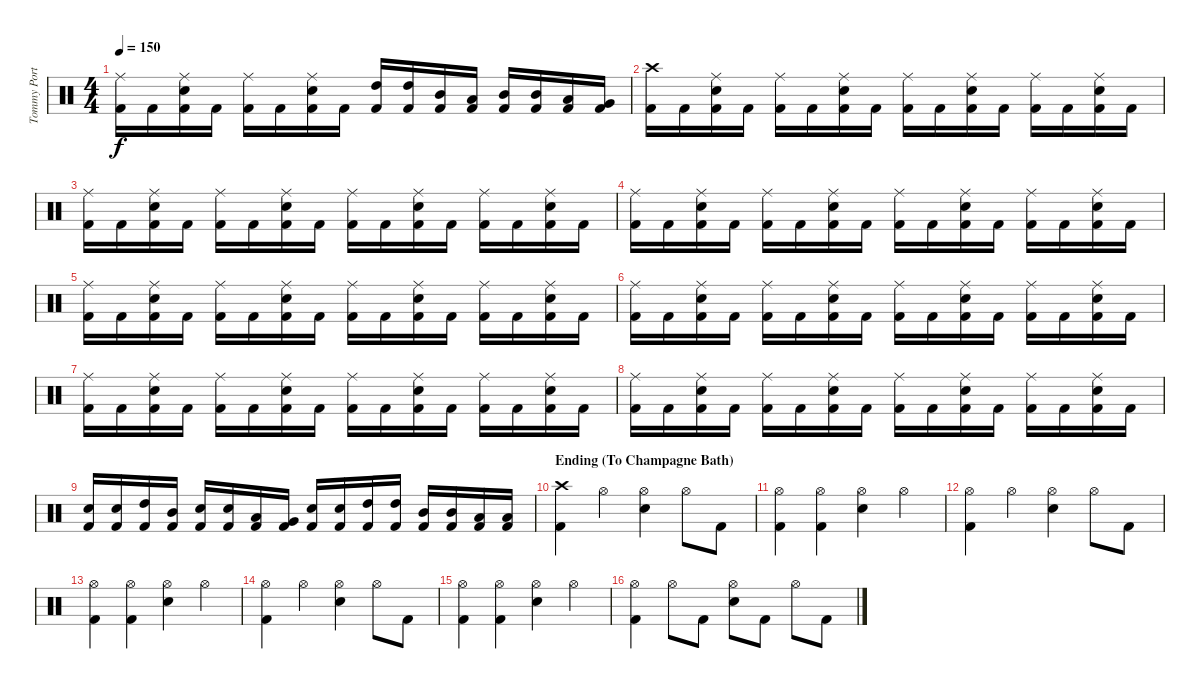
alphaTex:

\track ("Tommy Portino - Drums" "Tommy Port") {instrument percussion}
\staff {score}
\articulation defaults
\ts (4 4)
\tempo 150
\clef neutral
\ks c
("Ride (middle)" "Kick (hit) 2").16{dy f} "Kick (hit) 2".16 ("Ride (middle)" "Electric Snare (hit)" "Kick (hit) 2").16 "Kick (hit) 2".16 ("Ride (middle)" "Kick (hit) 2").16 "Kick (hit) 2".16 ("Ride (middle)" "Electric Snare (hit)" "Kick (hit) 2").16 "Kick (hit) 2".16 ("High Tom (hit)" "Kick (hit) 2").16 ("High Tom (hit)" "Kick (hit) 2").16 ("Mid Tom (hit)" "Kick (hit) 2").16 ("Low Tom (hit)" "Kick (hit) 2").16 ("Mid Tom (hit)" "Kick (hit) 2").16 ("Mid Tom (hit)" "Kick (hit) 2").16 ("Low Tom (hit)" "Kick (hit) 2").16 ("Very Low Tom (hit)" "Kick (hit) 2").16 |
("Crash high (hit)" "Kick (hit) 2").16 "Kick (hit) 2".16 ("Ride (middle)" "Electric Snare (hit)" "Kick (hit) 2").16 "Kick (hit) 2".16 ("Ride (middle)" "Kick (hit) 2").16 "Kick (hit) 2".16 ("Ride (middle)" "Electric Snare (hit)" "Kick (hit) 2").16 "Kick (hit) 2".16 ("Ride (middle)" "Kick (hit) 2").16 "Kick (hit) 2".16 ("Ride (middle)" "Electric Snare (hit)" "Kick (hit) 2").16 "Kick (hit) 2".16 ("Ride (middle)" "Kick (hit) 2").16 "Kick (hit) 2".16 ("Ride (middle)" "Electric Snare (hit)" "Kick (hit) 2").16 "Kick (hit) 2".16 |
("Ride (middle)" "Kick (hit) 2").16 "Kick (hit) 2".16 ("Ride (middle)" "Electric Snare (hit)" "Kick (hit) 2").16 "Kick (hit) 2".16 ("Ride (middle)" "Kick (hit) 2").16 "Kick (hit) 2".16 ("Ride (middle)" "Electric Snare (hit)" "Kick (hit) 2").16 "Kick (hit) 2".16 ("Ride (middle)" "Kick (hit) 2").16 "Kick (hit) 2".16 ("Ride (middle)" "Electric Snare (hit)" "Kick (hit) 2").16 "Kick (hit) 2".16 ("Ride (middle)" "Kick (hit) 2").16 "Kick (hit) 2".16 ("Ride (middle)" "Electric Snare (hit)" "Kick (hit) 2").16 "Kick (hit) 2".16 |
("Ride (middle)" "Kick (hit) 2").16 "Kick (hit) 2".16 ("Ride (middle)" "Electric Snare (hit)" "Kick (hit) 2").16 "Kick (hit) 2".16 ("Ride (middle)" "Kick (hit) 2").16 "Kick (hit) 2".16 ("Ride (middle)" "Electric Snare (hit)" "Kick (hit) 2").16 "Kick (hit) 2".16 ("Ride (middle)" "Kick (hit) 2").16 "Kick (hit) 2".16 ("Ride (middle)" "Electric Snare (hit)" "Kick (hit) 2").16 "Kick (hit) 2".16 ("Ride (middle)" "Kick (hit) 2").16 "Kick (hit) 2".16 ("Ride (middle)" "Electric Snare (hit)" "Kick (hit) 2").16 "Kick (hit) 2".16 |
("Ride (middle)" "Kick (hit) 2").16 "Kick (hit) 2".16 ("Ride (middle)" "Electric Snare (hit)" "Kick (hit) 2").16 "Kick (hit) 2".16 ("Ride (middle)" "Kick (hit) 2").16 "Kick (hit) 2".16 ("Ride (middle)" "Electric Snare (hit)" "Kick (hit) 2").16 "Kick (hit) 2".16 ("Ride (middle)" "Kick (hit) 2").16 "Kick (hit) 2".16 ("Ride (middle)" "Electric Snare (hit)" "Kick (hit) 2").16 "Kick (hit) 2".16 ("Ride (middle)" "Kick (hit) 2").16 "Kick (hit) 2".16 ("Ride (middle)" "Electric Snare (hit)" "Kick (hit) 2").16 "Kick (hit) 2".16 |
("Ride (middle)" "Kick (hit) 2").16 "Kick (hit) 2".16 ("Ride (middle)" "Electric Snare (hit)" "Kick (hit) 2").16 "Kick (hit) 2".16 ("Ride (middle)" "Kick (hit) 2").16 "Kick (hit) 2".16 ("Ride (middle)" "Electric Snare (hit)" "Kick (hit) 2").16 "Kick (hit) 2".16 ("Ride (middle)" "Kick (hit) 2").16 "Kick (hit) 2".16 ("Ride (middle)" "Electric Snare (hit)" "Kick (hit) 2").16 "Kick (hit) 2".16 ("Ride (middle)" "Kick (hit) 2").16 "Kick (hit) 2".16 ("Ride (middle)" "Electric Snare (hit)" "Kick (hit) 2").16 "Kick (hit) 2".16 |
("Ride (middle)" "Kick (hit) 2").16 "Kick (hit) 2".16 ("Ride (middle)" "Electric Snare (hit)" "Kick (hit) 2").16 "Kick (hit) 2".16 ("Ride (middle)" "Kick (hit) 2").16 "Kick (hit) 2".16 ("Ride (middle)" "Electric Snare (hit)" "Kick (hit) 2").16 "Kick (hit) 2".16 ("Ride (middle)" "Kick (hit) 2").16 "Kick (hit) 2".16 ("Ride (middle)" "Electric Snare (hit)" "Kick (hit) 2").16 "Kick (hit) 2".16 ("Ride (middle)" "Kick (hit) 2").16 "Kick (hit) 2".16 ("Ride (middle)" "Electric Snare (hit)" "Kick (hit) 2").16 "Kick (hit) 2".16 |
("Ride (middle)" "Kick (hit) 2").16 "Kick (hit) 2".16 ("Ride (middle)" "Electric Snare (hit)" "Kick (hit) 2").16 "Kick (hit) 2".16 ("Ride (middle)" "Kick (hit) 2").16 "Kick (hit) 2".16 ("Ride (middle)" "Electric Snare (hit)" "Kick (hit) 2").16 "Kick (hit) 2".16 ("Ride (middle)" "Kick (hit) 2").16 "Kick (hit) 2".16 ("Ride (middle)" "Electric Snare (hit)" "Kick (hit) 2").16 "Kick (hit) 2".16 ("Ride (middle)" "Kick (hit) 2").16 "Kick (hit) 2".16 ("Ride (middle)" "Electric Snare (hit)" "Kick (hit) 2").16 "Kick (hit) 2".16 |
("Electric Snare (hit)" "Kick (hit) 2").16 ("Electric Snare (hit)" "Kick (hit) 2").16 ("High Tom (hit)" "Kick (hit) 2").16 ("Mid Tom (hit)" "Kick (hit) 2").16 ("Electric Snare (hit)" "Kick (hit) 2").16 ("Electric Snare (hit)" "Kick (hit) 2").16 ("Low Tom (hit)" "Kick (hit) 2").16 ("Very Low Tom (hit)" "Kick (hit) 2").16 ("Electric Snare (hit)" "Kick (hit) 2").16 ("Electric Snare (hit)" "Kick (hit) 2").16 ("High Tom (hit)" "Kick (hit) 2").16 ("High Tom (hit)" "Kick (hit) 2").16 ("Mid Tom (hit)" "Kick (hit) 2").16 ("Mid Tom (hit)" "Kick (hit) 2").16 ("Low Tom (hit)" "Kick (hit) 2").16 ("Low Tom (hit)" "Kick (hit) 2").16 |
\section ("" "Ending (To Champagne Bath)")
("Crash high (hit)" "Kick (hit) 2").4 "Hi-Hat (open)".4 ("Hi-Hat (open)" "Electric Snare (hit)").4 "Hi-Hat (open)".8 "Kick (hit) 2".8 |
("Hi-Hat (open)" "Kick (hit) 2").4 ("Hi-Hat (open)" "Kick (hit) 2").4 ("Hi-Hat (open)" "Electric Snare (hit)").4 "Hi-Hat (open)".4 |
("Hi-Hat (open)" "Kick (hit) 2").4 "Hi-Hat (open)".4 ("Hi-Hat (open)" "Electric Snare (hit)").4 "Hi-Hat (open)".8 "Kick (hit) 2".8 |
("Hi-Hat (open)" "Kick (hit) 2").4 ("Hi-Hat (open)" "Kick (hit) 2").4 ("Hi-Hat (open)" "Electric Snare (hit)").4 "Hi-Hat (open)".4 |
("Hi-Hat (open)" "Kick (hit) 2").4 "Hi-Hat (open)".4 ("Hi-Hat (open)" "Electric Snare (hit)").4 "Hi-Hat (open)".8 "Kick (hit) 2".8 |
("Hi-Hat (open)" "Kick (hit) 2").4 ("Hi-Hat (open)" "Kick (hit) 2").4 ("Hi-Hat (open)" "Electric Snare (hit)").4 "Hi-Hat (open)".4 |
("Hi-Hat (open)" "Kick (hit) 2").4 "Hi-Hat (open)".8 "Kick (hit) 2".8 ("Hi-Hat (open)" "Electric Snare (hit)").8 "Kick (hit) 2".8 "Hi-Hat (open)".8 "Kick (hit) 2".8
